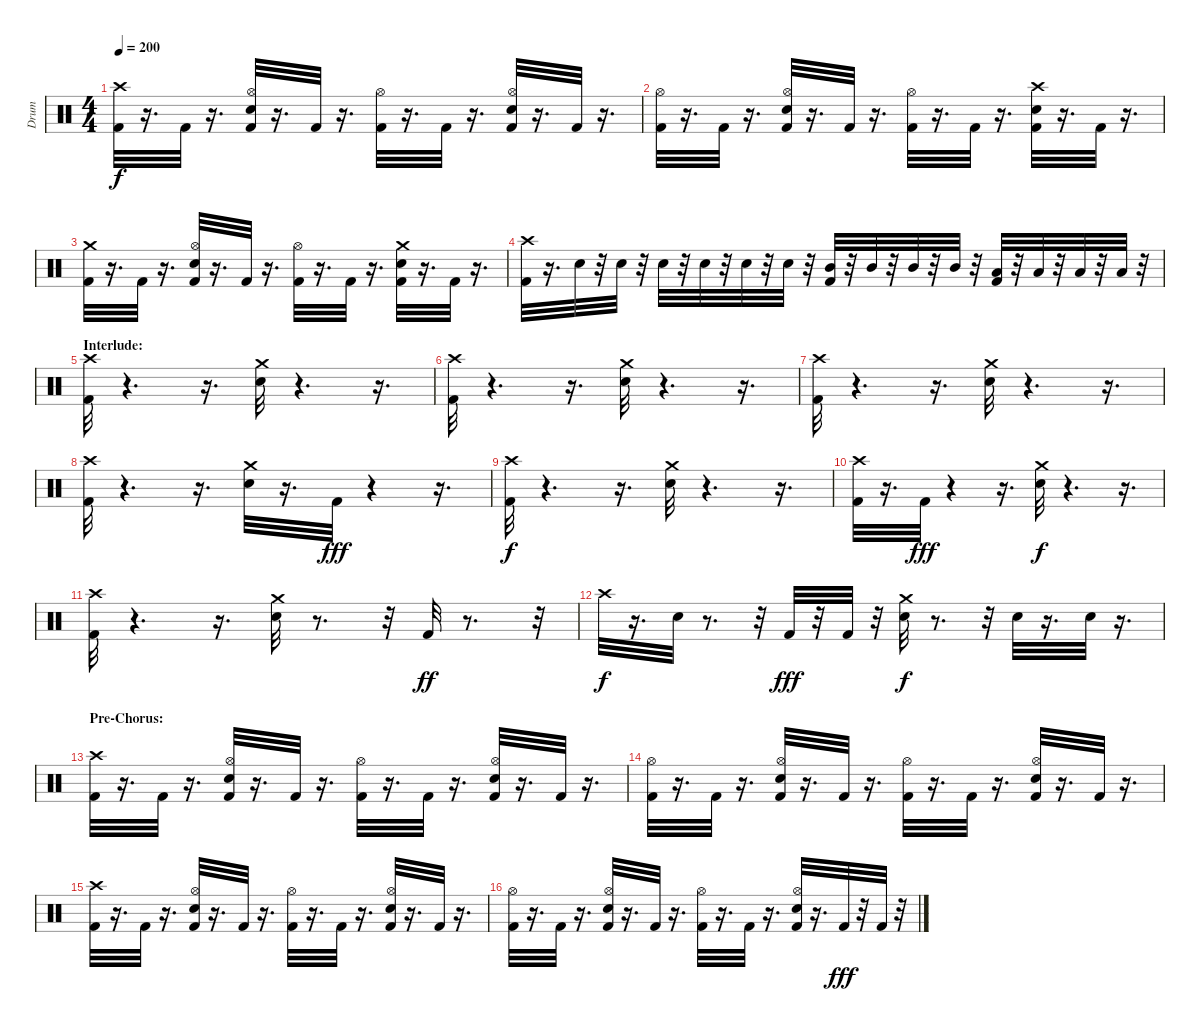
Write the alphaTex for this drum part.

\track ("Drum" "Drum") {instrument percussion}
\staff {score}
\articulation defaults
\ts (4 4)
\tempo 200
\clef neutral
\ks c
("Crash high (hit)" "Kick (hit) 2").32{dy f} r.16{d} "Kick (hit) 2".32 r.16{d} ("Hi-Hat (open)" "Snare (hit) 2" "Kick (hit) 2").32 r.16{d} "Kick (hit) 2".32 r.16{d} ("Hi-Hat (open)" "Kick (hit) 2").32 r.16{d} "Kick (hit) 2".32 r.16{d} ("Hi-Hat (open)" "Snare (hit) 2" "Kick (hit) 2").32 r.16{d} "Kick (hit) 2".32 r.16{d} |
("Hi-Hat (open)" "Kick (hit) 2").32 r.16{d} "Kick (hit) 2".32 r.16{d} ("Hi-Hat (open)" "Snare (hit) 2" "Kick (hit) 2").32 r.16{d} "Kick (hit) 2".32 r.16{d} ("Hi-Hat (open)" "Kick (hit) 2").32 r.16{d} "Kick (hit) 2".32 r.16{d} ("Crash high (hit)" "Snare (hit) 2" "Kick (hit) 2").32 r.16{d} "Kick (hit) 2".32 r.16{d} |
("Crash medium (hit)" "Kick (hit) 2").32 r.16{d} "Kick (hit) 2".32 r.16{d} ("Hi-Hat (open)" "Snare (hit) 2" "Kick (hit) 2").32 r.16{d} "Kick (hit) 2".32 r.16{d} ("Hi-Hat (open)" "Kick (hit) 2").32 r.16{d} "Kick (hit) 2".32 r.16{d} ("Crash medium (hit)" "Snare (hit) 2" "Kick (hit) 2").32 r.16{d} "Kick (hit) 2".32 r.16{d} |
("Crash high (hit)" "Kick (hit) 2").32 r.16{d} "Snare (hit) 2".32 r.32 "Snare (hit) 2".32 r.32 "Snare (hit) 2".32 r.32 "Snare (hit) 2".32 r.32 "Snare (hit) 2".32 r.32 "Snare (hit) 2".32 r.32 ("Kick (hit) 2" "Mid Tom (hit)").32 r.32 "Mid Tom (hit)".32 r.32 "Mid Tom (hit)".32 r.32 "Mid Tom (hit)".32 r.32 ("Kick (hit) 2" "Low Tom (hit)").32 r.32 "Low Tom (hit)".32 r.32 "Low Tom (hit)".32 r.32 "Low Tom (hit)".32 r.32 |
\section ("" "Interlude:")
("Crash high (hit)" "Kick (hit) 2").32 r.4{d} r.16{d} ("Crash medium (hit)" "Snare (hit) 2").32 r.4{d} r.16{d} |
("Crash high (hit)" "Kick (hit) 2").32 r.4{d} r.16{d} ("Crash medium (hit)" "Snare (hit) 2").32 r.4{d} r.16{d} |
("Crash high (hit)" "Kick (hit) 2").32 r.4{d} r.16{d} ("Crash medium (hit)" "Snare (hit) 2").32 r.4{d} r.16{d} |
("Kick (hit) 2" "Crash high (hit)").32 r.4{d} r.16{d} ("Crash medium (hit)" "Snare (hit) 2").32 r.16{d} "Kick (hit) 2".32{dy fff} r.4 r.16{d} |
("Kick (hit) 2" "Crash high (hit)").32{dy f} r.4{d} r.16{d} ("Crash medium (hit)" "Snare (hit) 2").32 r.4{d} r.16{d} |
("Kick (hit) 2" "Crash high (hit)").32 r.16{d} "Kick (hit) 2".32{dy fff} r.4 r.16{d} ("Crash medium (hit)" "Snare (hit) 2").32{dy f} r.4{d} r.16{d} |
("Kick (hit) 2" "Crash high (hit)").32 r.4{d} r.16{d} ("Crash medium (hit)" "Snare (hit) 2").32 r.8{d} r.32 "Kick (hit) 2".32{dy ff} r.8{d} r.32 |
"Crash high (hit)".32{dy f} r.16{d} "Snare (hit) 2".32 r.8{d} r.32 "Kick (hit) 2".32{dy fff} r.32 "Kick (hit) 2".32 r.32 ("Snare (hit) 2" "Crash medium (hit)").32{dy f} r.8{d} r.32 "Snare (hit) 2".32 r.16{d} "Snare (hit) 2".32 r.16{d} |
\section ("" "Pre-Chorus:")
("Crash high (hit)" "Kick (hit) 2").32 r.16{d} "Kick (hit) 2".32 r.16{d} ("Hi-Hat (open)" "Snare (hit) 2" "Kick (hit) 2").32 r.16{d} "Kick (hit) 2".32 r.16{d} ("Hi-Hat (open)" "Kick (hit) 2").32 r.16{d} "Kick (hit) 2".32 r.16{d} ("Hi-Hat (open)" "Snare (hit) 2" "Kick (hit) 2").32 r.16{d} "Kick (hit) 2".32 r.16{d} |
("Hi-Hat (open)" "Kick (hit) 2").32 r.16{d} "Kick (hit) 2".32 r.16{d} ("Hi-Hat (open)" "Snare (hit) 2" "Kick (hit) 2").32 r.16{d} "Kick (hit) 2".32 r.16{d} ("Hi-Hat (open)" "Kick (hit) 2").32 r.16{d} "Kick (hit) 2".32 r.16{d} ("Hi-Hat (open)" "Snare (hit) 2" "Kick (hit) 2").32 r.16{d} "Kick (hit) 2".32 r.16{d} |
("Crash high (hit)" "Kick (hit) 2").32 r.16{d} "Kick (hit) 2".32 r.16{d} ("Hi-Hat (open)" "Snare (hit) 2" "Kick (hit) 2").32 r.16{d} "Kick (hit) 2".32 r.16{d} ("Hi-Hat (open)" "Kick (hit) 2").32 r.16{d} "Kick (hit) 2".32 r.16{d} ("Hi-Hat (open)" "Snare (hit) 2" "Kick (hit) 2").32 r.16{d} "Kick (hit) 2".32 r.16{d} |
("Hi-Hat (open)" "Kick (hit) 2").32 r.16{d} "Kick (hit) 2".32 r.16{d} ("Hi-Hat (open)" "Snare (hit) 2" "Kick (hit) 2").32 r.16{d} "Kick (hit) 2".32 r.16{d} ("Hi-Hat (open)" "Kick (hit) 2").32 r.16{d} "Kick (hit) 2".32 r.16{d} ("Hi-Hat (open)" "Snare (hit) 2" "Kick (hit) 2").32 r.16{d} "Kick (hit) 2".32{dy fff} r.32 "Kick (hit) 2".32 r.32
